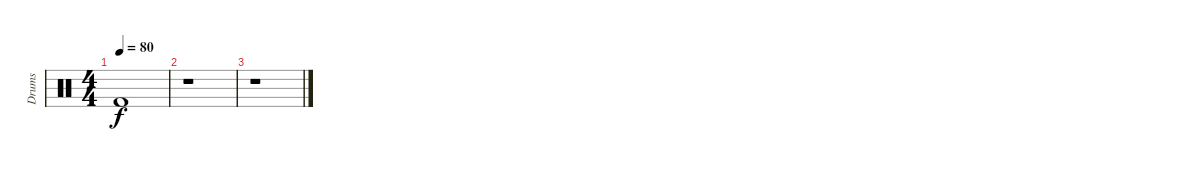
\track ("Drums" "Drums") {instrument percussion}
\staff
\articulation defaults
\ts (4 4)
\tempo 80
\clef neutral
\ks c "Kick (hit) 2".1{dy f}
|
r.1 |
r.1
